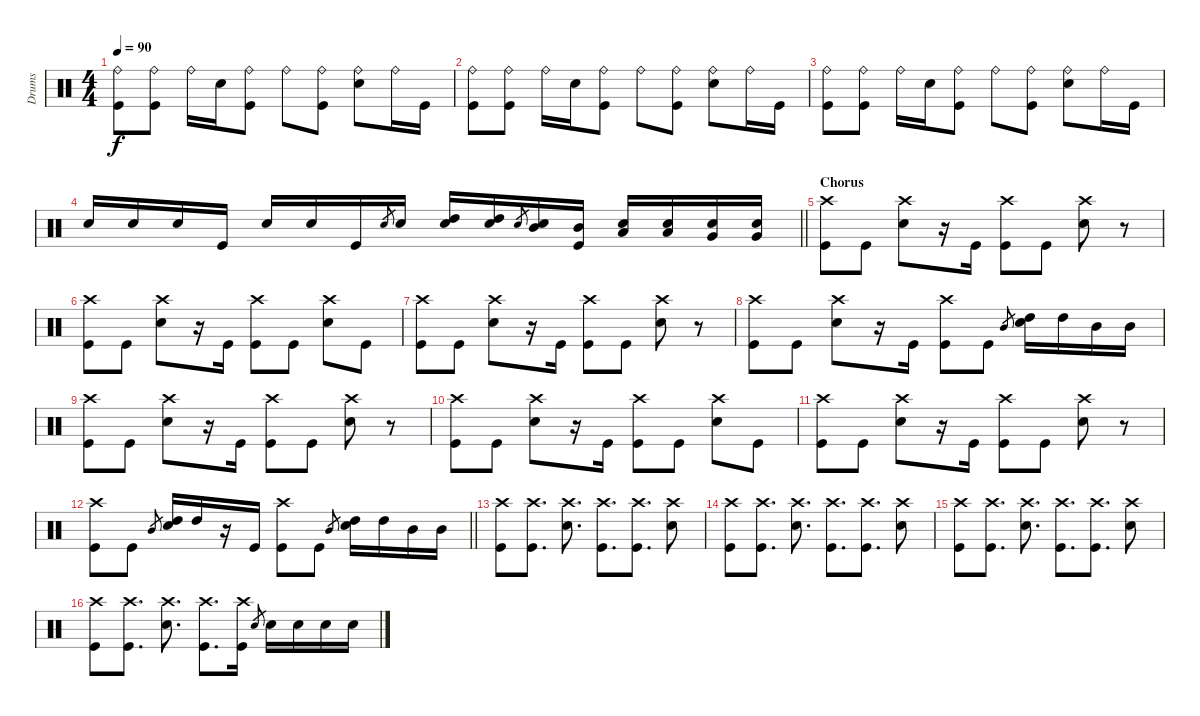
\track ("Drums" "Drums") {instrument percussion}
\staff {score}
\articulation defaults
\ts (4 4)
\tempo 90
\clef neutral
\ks c
("Ride (bell)" "Kick (hit)").8{dy f} ("Ride (bell)" "Kick (hit)").8 "Ride (bell)".16 "Electric Snare (hit)".16 ("Ride (bell)" "Kick (hit)").8 "Ride (bell)".8 ("Ride (bell)" "Kick (hit)").8 ("Ride (bell)" "Electric Snare (hit)").8 "Ride (bell)".16 "Kick (hit)".16 |
("Ride (bell)" "Kick (hit)").8 ("Ride (bell)" "Kick (hit)").8 "Ride (bell)".16 "Electric Snare (hit)".16 ("Ride (bell)" "Kick (hit)").8 "Ride (bell)".8 ("Ride (bell)" "Kick (hit)").8 ("Ride (bell)" "Electric Snare (hit)").8 "Ride (bell)".16 "Kick (hit)".16 |
("Ride (bell)" "Kick (hit)").8 ("Ride (bell)" "Kick (hit)").8 "Ride (bell)".16 "Electric Snare (hit)".16 ("Ride (bell)" "Kick (hit)").8 "Ride (bell)".8 ("Ride (bell)" "Kick (hit)").8 ("Ride (bell)" "Electric Snare (hit)").8 "Ride (bell)".16 "Kick (hit)".16 |
\barLineRight lightlight "Electric Snare (hit)".16 "Electric Snare (hit)".16 "Electric Snare (hit)".16 "Kick (hit)".16 "Electric Snare (hit)".16 "Electric Snare (hit)".16 "Kick (hit)".16 "Electric Snare (hit)".8{gr} "Electric Snare (hit)".16
("High Tom (hit)" "Electric Snare (hit)").16 ("High Tom (hit)" "Electric Snare (hit)").16 "Electric Snare (hit)".8{gr} ("Mid Tom (hit)" "Electric Snare (hit)").16 ("Mid Tom (hit)" "Kick (hit)").16 ("Low Tom (hit)" "Electric Snare (hit)").16 ("Low Tom (hit)" "Electric Snare (hit)").16 ("Very Low Tom (hit)" "Electric Snare (hit)").16 ("Very Low Tom (hit)" "Electric Snare (hit)").16 |
\section ("" "Chorus ")
("Crash high (hit)" "Kick (hit)").8 "Kick (hit)".8 ("Crash high (hit)" "Electric Snare (hit)").8 r.16 "Kick (hit)".16 ("Crash high (hit)" "Kick (hit)").8 "Kick (hit)".8 ("Crash high (hit)" "Electric Snare (hit)").8 r.8 |
("Crash high (hit)" "Kick (hit)").8 "Kick (hit)".8 ("Crash high (hit)" "Electric Snare (hit)").8 r.16 "Kick (hit)".16 ("Crash high (hit)" "Kick (hit)").8 "Kick (hit)".8 ("Crash high (hit)" "Electric Snare (hit)").8 "Kick (hit)".8 |
("Crash high (hit)" "Kick (hit)").8 "Kick (hit)".8 ("Crash high (hit)" "Electric Snare (hit)").8 r.16 "Kick (hit)".16 ("Crash high (hit)" "Kick (hit)").8 "Kick (hit)".8 ("Crash high (hit)" "Electric Snare (hit)").8 r.8 |
("Crash high (hit)" "Kick (hit)").8 "Kick (hit)".8 ("Crash high (hit)" "Electric Snare (hit)").8 r.16 "Kick (hit)".16 ("Crash high (hit)" "Kick (hit)").8 "Kick (hit)".8 "Mid Tom (hit)".8{gr} ("High Tom (hit)" "Electric Snare (hit)").16 "High Tom (hit)".16 "Mid Tom (hit)".16 "Mid Tom (hit)".16 |
("Crash high (hit)" "Kick (hit)").8 "Kick (hit)".8 ("Crash high (hit)" "Electric Snare (hit)").8 r.16 "Kick (hit)".16 ("Crash high (hit)" "Kick (hit)").8 "Kick (hit)".8 ("Crash high (hit)" "Electric Snare (hit)").8 r.8 |
("Crash high (hit)" "Kick (hit)").8 "Kick (hit)".8 ("Crash high (hit)" "Electric Snare (hit)").8 r.16 "Kick (hit)".16 ("Crash high (hit)" "Kick (hit)").8 "Kick (hit)".8 ("Crash high (hit)" "Electric Snare (hit)").8 "Kick (hit)".8 |
("Crash high (hit)" "Kick (hit)").8 "Kick (hit)".8 ("Crash high (hit)" "Electric Snare (hit)").8 r.16 "Kick (hit)".16 ("Crash high (hit)" "Kick (hit)").8 "Kick (hit)".8 ("Crash high (hit)" "Electric Snare (hit)").8 r.8 |
\barLineRight lightlight
("Crash high (hit)" "Kick (hit)").8 "Kick (hit)".8 "Mid Tom (hit)".8{gr} ("High Tom (hit)" "Electric Snare (hit)").16 "High Tom (hit)".16 r.16 "Kick (hit)".16 ("Crash high (hit)" "Kick (hit)").8 "Kick (hit)".8 "Mid Tom (hit)".8{gr} ("High Tom (hit)" "Electric Snare (hit)").16 "High Tom (hit)".16 "Mid Tom (hit)".16 "Mid Tom (hit)".16 |
("Crash high (hit)" "Kick (hit)").8 ("Crash high (hit)" "Kick (hit)").8{d} ("Crash high (hit)" "Electric Snare (hit)").8{d} ("Crash high (hit)" "Kick (hit)").8{d} ("Crash high (hit)" "Kick (hit)").8{d} ("Crash high (hit)" "Electric Snare (hit)").8 |
("Crash high (hit)" "Kick (hit)").8 ("Crash high (hit)" "Kick (hit)").8{d} ("Crash high (hit)" "Electric Snare (hit)").8{d} ("Crash high (hit)" "Kick (hit)").8{d} ("Crash high (hit)" "Kick (hit)").8{d} ("Crash high (hit)" "Electric Snare (hit)").8 |
("Crash high (hit)" "Kick (hit)").8 ("Crash high (hit)" "Kick (hit)").8{d} ("Crash high (hit)" "Electric Snare (hit)").8{d} ("Crash high (hit)" "Kick (hit)").8{d} ("Crash high (hit)" "Kick (hit)").8{d} ("Crash high (hit)" "Electric Snare (hit)").8 |
("Crash high (hit)" "Kick (hit)").8 ("Crash high (hit)" "Kick (hit)").8{d} ("Crash high (hit)" "Electric Snare (hit)").8{d} ("Crash high (hit)" "Kick (hit)").8{d} ("Crash high (hit)" "Kick (hit)").16 "Electric Snare (hit)".8{gr} "Electric Snare (hit)".16 "Electric Snare (hit)".16 "Electric Snare (hit)".16 "Electric Snare (hit)".16
